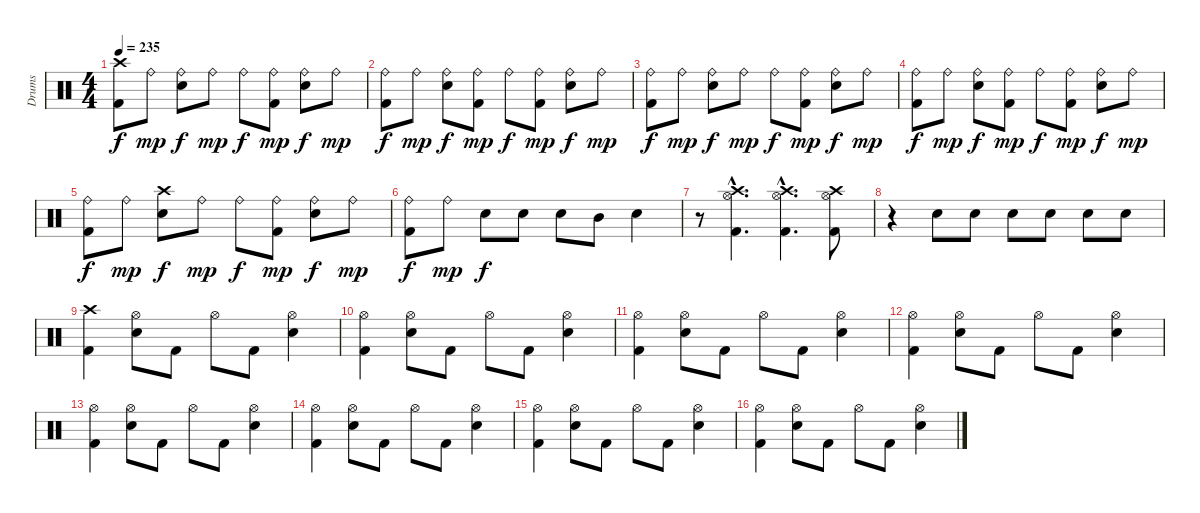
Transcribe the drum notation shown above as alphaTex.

\track ("Drums" "Drums") {instrument percussion}
\staff {score}
\articulation defaults
\ts (4 4)
\tempo 235
\clef neutral
\ks c
("Crash high (hit)" "Kick (hit) 2").8{dy f} "Ride (bell)".8{dy mp} ("Ride (bell)" "Snare (hit) 2").8{dy f} "Ride (bell)".8{dy mp} "Ride (bell)".8{dy f} ("Ride (bell)" "Kick (hit) 2").8{dy mp} ("Ride (bell)" "Snare (hit) 2").8{dy f} "Ride (bell)".8{dy mp} |
("Ride (bell)" "Kick (hit) 2").8{dy f} "Ride (bell)".8{dy mp} ("Ride (bell)" "Snare (hit) 2").8{dy f} ("Ride (bell)" "Kick (hit) 2").8{dy mp} "Ride (bell)".8{dy f} ("Ride (bell)" "Kick (hit) 2").8{dy mp} ("Ride (bell)" "Snare (hit) 2").8{dy f} "Ride (bell)".8{dy mp} |
("Ride (bell)" "Kick (hit) 2").8{dy f} "Ride (bell)".8{dy mp} ("Ride (bell)" "Snare (hit) 2").8{dy f} "Ride (bell)".8{dy mp} "Ride (bell)".8{dy f} ("Ride (bell)" "Kick (hit) 2").8{dy mp} ("Ride (bell)" "Snare (hit) 2").8{dy f} "Ride (bell)".8{dy mp} |
("Ride (bell)" "Kick (hit) 2").8{dy f} "Ride (bell)".8{dy mp} ("Ride (bell)" "Snare (hit) 2").8{dy f} ("Ride (bell)" "Kick (hit) 2").8{dy mp} "Ride (bell)".8{dy f} ("Ride (bell)" "Kick (hit) 2").8{dy mp} ("Ride (bell)" "Snare (hit) 2").8{dy f} "Ride (bell)".8{dy mp} |
("Ride (bell)" "Kick (hit) 2").8{dy f} "Ride (bell)".8{dy mp} ("Crash high (hit)" "Snare (hit) 2").8{dy f} "Ride (bell)".8{dy mp} "Ride (bell)".8{dy f} ("Ride (bell)" "Kick (hit) 2").8{dy mp} ("Ride (bell)" "Snare (hit) 2").8{dy f} "Ride (bell)".8{dy mp} |
("Ride (bell)" "Kick (hit) 2").8{dy f} "Ride (bell)".8{dy mp} "Snare (hit) 2".8{dy f} "Snare (hit) 2".8 "Snare (hit) 2".8 "Mid Tom (hit)".8 "Snare (hit) 2".4 |
r.8 ("Hi-Hat (open)"{hac} "Crash high (hit)"{hac} "Kick (hit) 2"{hac}).4{d} ("Hi-Hat (open)"{hac} "Crash high (hit)"{hac} "Kick (hit) 2"{hac}).4{d} ("Hi-Hat (open)" "Crash high (hit)" "Kick (hit) 2").8 |
r.4 "Snare (hit) 2".8 "Snare (hit) 2".8 "Snare (hit) 2".8 "Snare (hit) 2".8 "Snare (hit) 2".8 "Snare (hit) 2".8 |
("Crash high (hit)" "Kick (hit) 2").4 ("Hi-Hat (open)" "Snare (hit) 2").8 "Kick (hit) 2".8 "Hi-Hat (open)".8 "Kick (hit) 2".8 ("Hi-Hat (open)" "Snare (hit) 2").4 |
("Hi-Hat (open)" "Kick (hit) 2").4 ("Hi-Hat (open)" "Snare (hit) 2").8 "Kick (hit) 2".8 "Hi-Hat (open)".8 "Kick (hit) 2".8 ("Hi-Hat (open)" "Snare (hit) 2").4 |
("Hi-Hat (open)" "Kick (hit) 2").4 ("Hi-Hat (open)" "Snare (hit) 2").8 "Kick (hit) 2".8 "Hi-Hat (open)".8 "Kick (hit) 2".8 ("Hi-Hat (open)" "Snare (hit) 2").4 |
("Hi-Hat (open)" "Kick (hit) 2").4 ("Hi-Hat (open)" "Snare (hit) 2").8 "Kick (hit) 2".8 "Hi-Hat (open)".8 "Kick (hit) 2".8 ("Hi-Hat (open)" "Snare (hit) 2").4 |
("Hi-Hat (open)" "Kick (hit) 2").4 ("Hi-Hat (open)" "Snare (hit) 2").8 "Kick (hit) 2".8 "Hi-Hat (open)".8 "Kick (hit) 2".8 ("Hi-Hat (open)" "Snare (hit) 2").4 |
("Hi-Hat (open)" "Kick (hit) 2").4 ("Hi-Hat (open)" "Snare (hit) 2").8 "Kick (hit) 2".8 "Hi-Hat (open)".8 "Kick (hit) 2".8 ("Hi-Hat (open)" "Snare (hit) 2").4 |
("Hi-Hat (open)" "Kick (hit) 2").4 ("Hi-Hat (open)" "Snare (hit) 2").8 "Kick (hit) 2".8 "Hi-Hat (open)".8 "Kick (hit) 2".8 ("Hi-Hat (open)" "Snare (hit) 2").4 |
("Hi-Hat (open)" "Kick (hit) 2").4 ("Hi-Hat (open)" "Snare (hit) 2").8 "Kick (hit) 2".8 "Hi-Hat (open)".8 "Kick (hit) 2".8 ("Hi-Hat (open)" "Snare (hit) 2").4
